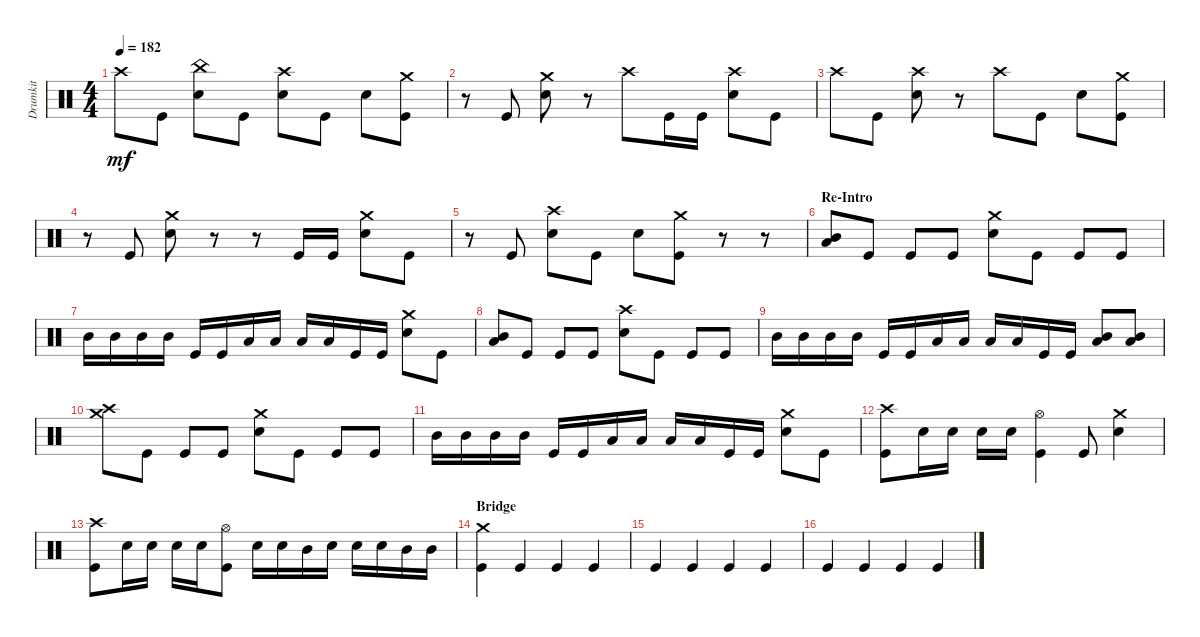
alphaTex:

\track ("Drumkit" "Drumkit") {instrument percussion}
\staff {score}
\articulation defaults
\ts (4 4)
\tempo 182
\clef neutral
\ks c "Crash high (hit)".8{dy mf} "Kick (hit)".8
("Snare (hit) 2" "China (hit)").8 "Kick (hit)".8 ("Snare (hit) 2" "Crash high (hit)").8 "Kick (hit)".8 "Snare (hit) 2".8 ("Kick (hit)" "Crash medium (hit)").8 |
r.8 "Kick (hit)".8 ("Snare (hit) 2" "Crash medium (hit)").8 r.8 "Crash high (hit)".8 "Kick (hit)".16 "Kick (hit)".16 ("Snare (hit) 2" "Crash high (hit)").8 "Kick (hit)".8 |
"Crash high (hit)".8 "Kick (hit)".8 ("Snare (hit) 2" "Crash high (hit)").8 r.8 "Crash high (hit)".8 "Kick (hit)".8 "Snare (hit) 2".8 ("Kick (hit)" "Crash medium (hit)").8 |
r.8 "Kick (hit)".8 ("Snare (hit) 2" "Crash medium (hit)").8 r.8 r.8 "Kick (hit)".16 "Kick (hit)".16 ("Snare (hit) 2" "Crash medium (hit)").8 "Kick (hit)".8 |
r.8 "Kick (hit)".8 ("Snare (hit) 2" "Crash high (hit)").8 "Kick (hit)".8 "Snare (hit) 2".8 ("Kick (hit)" "Crash medium (hit)").8 r.8 r.8 |
\section ("" "Re-Intro")
("Mid Tom (hit)" "Low Tom (hit)").8 "Kick (hit)".8 "Kick (hit)".8 "Kick (hit)".8 ("Snare (hit) 2" "Crash medium (hit)").8 "Kick (hit)".8 "Kick (hit)".8 "Kick (hit)".8 |
"Mid Tom (hit)".16 "Mid Tom (hit)".16 "Mid Tom (hit)".16 "Mid Tom (hit)".16 "Kick (hit)".16 "Kick (hit)".16 "Low Tom (hit)".16 "Low Tom (hit)".16 "Low Tom (hit)".16 "Low Tom (hit)".16 "Kick (hit)".16 "Kick (hit)".16 ("Snare (hit) 2" "Crash medium (hit)").8 "Kick (hit)".8 |
("Mid Tom (hit)" "Low Tom (hit)").8 "Kick (hit)".8 "Kick (hit)".8 "Kick (hit)".8 ("Snare (hit) 2" "Crash high (hit)").8 "Kick (hit)".8 "Kick (hit)".8 "Kick (hit)".8 |
"Mid Tom (hit)".16 "Mid Tom (hit)".16 "Mid Tom (hit)".16 "Mid Tom (hit)".16 "Kick (hit)".16 "Kick (hit)".16 "Low Tom (hit)".16 "Low Tom (hit)".16 "Low Tom (hit)".16 "Low Tom (hit)".16 "Kick (hit)".16 "Kick (hit)".16 ("Low Tom (hit)" "Mid Tom (hit)").8 ("Low Tom (hit)" "Mid Tom (hit)").8 |
("Crash medium (hit)" "Crash high (hit)").8 "Kick (hit)".8 "Kick (hit)".8 "Kick (hit)".8 ("Snare (hit) 2" "Crash medium (hit)").8 "Kick (hit)".8 "Kick (hit)".8 "Kick (hit)".8 |
"Mid Tom (hit)".16 "Mid Tom (hit)".16 "Mid Tom (hit)".16 "Mid Tom (hit)".16 "Kick (hit)".16 "Kick (hit)".16 "Low Tom (hit)".16 "Low Tom (hit)".16 "Low Tom (hit)".16 "Low Tom (hit)".16 "Kick (hit)".16 "Kick (hit)".16 ("Snare (hit) 2" "Crash medium (hit)").8 "Kick (hit)".8 |
("Crash high (hit)" "Kick (hit)").8 "Snare (hit) 2".16 "Snare (hit) 2".16 "Snare (hit) 2".16 "Snare (hit) 2".16 ("Kick (hit)" "Hi-Hat (open)").4 "Kick (hit)".8 ("Snare (hit) 2" "Crash medium (hit)").4 |
("Crash high (hit)" "Kick (hit)").8 "Snare (hit) 2".16 "Snare (hit) 2".16 "Snare (hit) 2".16 "Snare (hit) 2".16 ("Kick (hit)" "Hi-Hat (open)").8 "Snare (hit) 2".16 "Snare (hit) 2".16 "Mid Tom (hit)".16 "Snare (hit) 2".16 "Snare (hit) 2".16 "Snare (hit) 2".16 "Mid Tom (hit)".16 "Mid Tom (hit)".16 |
\section ("" "Bridge")
("Crash medium (hit)" "Kick (hit)").4 "Kick (hit)".4 "Kick (hit)".4 "Kick (hit)".4 |
"Kick (hit)".4 "Kick (hit)".4 "Kick (hit)".4 "Kick (hit)".4 |
"Kick (hit)".4 "Kick (hit)".4 "Kick (hit)".4 "Kick (hit)".4
